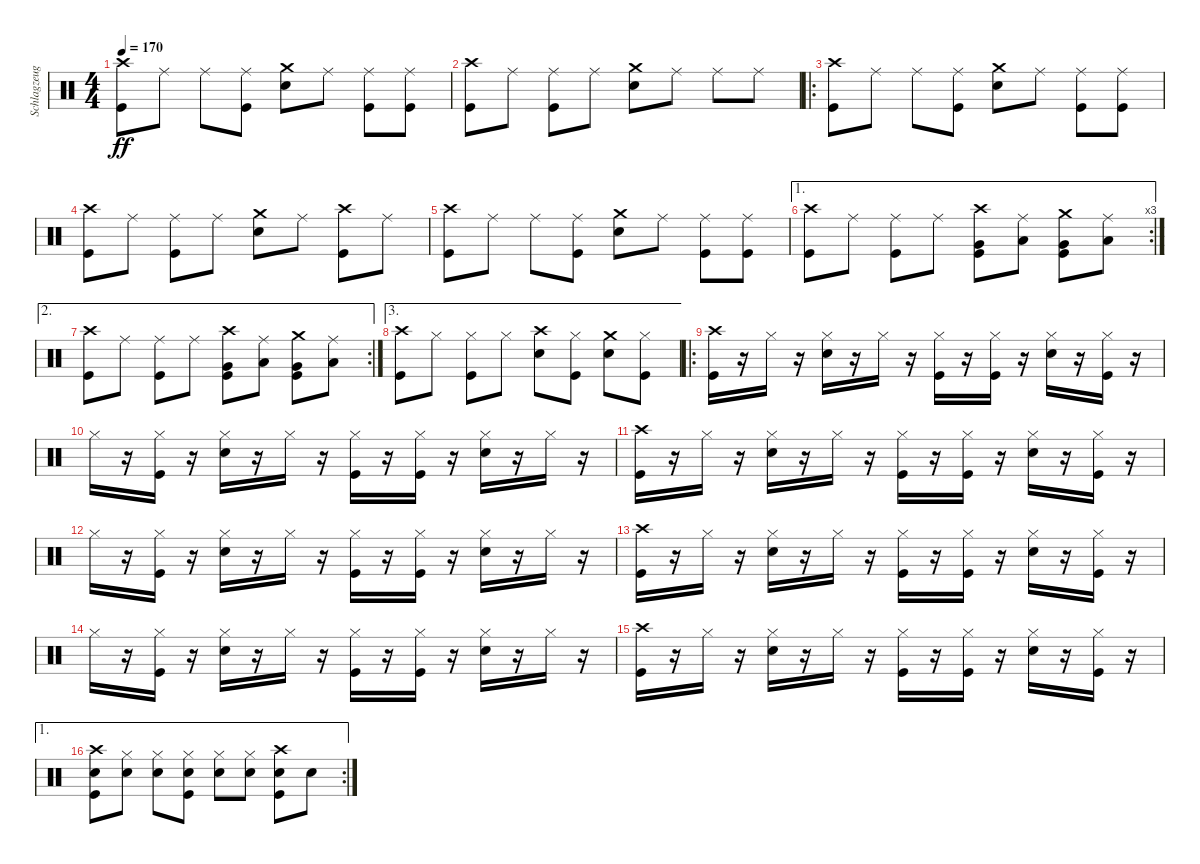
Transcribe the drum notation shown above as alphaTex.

\track ("Schlagzeug" "Schlagzeug") {instrument percussion}
\staff {score}
\articulation defaults
\ts (4 4)
\tempo 170
\clef neutral
\ks c
("Crash high (hit)" "Kick (hit)").8{dy ff} "Ride (middle)".8 "Ride (middle)".8 ("Ride (middle)" "Kick (hit)").8 ("Crash medium (hit)" "Snare (hit) 2").8 "Ride (middle)".8 ("Ride (middle)" "Kick (hit)").8 ("Ride (middle)" "Kick (hit)").8 |
("Crash high (hit)" "Kick (hit)").8 "Ride (middle)".8 ("Ride (middle)" "Kick (hit)").8 "Ride (middle)".8 ("Crash medium (hit)" "Snare (hit) 2").8 "Ride (middle)".8 "Ride (middle)".8 "Ride (middle)".8 |
\ro
("Crash high (hit)" "Kick (hit)").8 "Ride (middle)".8 "Ride (middle)".8 ("Ride (middle)" "Kick (hit)").8 ("Crash medium (hit)" "Snare (hit) 2").8 "Ride (middle)".8 ("Ride (middle)" "Kick (hit)").8 ("Ride (middle)" "Kick (hit)").8 |
("Crash high (hit)" "Kick (hit)").8 "Ride (middle)".8 ("Ride (middle)" "Kick (hit)").8 "Ride (middle)".8 ("Crash medium (hit)" "Snare (hit) 2").8 "Ride (middle)".8 ("Crash high (hit)" "Kick (hit)").8 "Ride (middle)".8 |
("Crash high (hit)" "Kick (hit)").8 "Ride (middle)".8 "Ride (middle)".8 ("Ride (middle)" "Kick (hit)").8 ("Crash medium (hit)" "Snare (hit) 2").8 "Ride (middle)".8 ("Ride (middle)" "Kick (hit)").8 ("Ride (middle)" "Kick (hit)").8 |
\ae 1
\rc 3
("Crash high (hit)" "Kick (hit)").8 "Ride (middle)".8 ("Ride (middle)" "Kick (hit)").8 "Ride (middle)".8 ("Crash high (hit)" "Very Low Tom (hit)" "Kick (hit)").8 ("Ride (middle)" "Low Floor Tom (hit)").8 ("Crash medium (hit)" "Very Low Tom (hit)" "Kick (hit)").8 ("Ride (middle)" "Low Floor Tom (hit)").8 |
\ae 2
\rc 2
("Crash high (hit)" "Kick (hit)").8 "Ride (middle)".8 ("Ride (middle)" "Kick (hit)").8 "Ride (middle)".8 ("Crash high (hit)" "Very Low Tom (hit)" "Kick (hit)").8 ("Ride (middle)" "Low Floor Tom (hit)").8 ("Crash medium (hit)" "Very Low Tom (hit)" "Kick (hit)").8 ("Ride (middle)" "Low Floor Tom (hit)").8 |
\ae 3
("Crash high (hit)" "Kick (hit)").8 "Hi-Hat (closed)".8 ("Hi-Hat (closed)" "Kick (hit)").8 "Hi-Hat (closed)".8 ("Crash high (hit)" "Snare (hit) 2").8 ("Hi-Hat (closed)" "Kick (hit)").8 ("Crash medium (hit)" "Snare (hit) 2").8 ("Hi-Hat (closed)" "Kick (hit)").8 |
\ro
("Crash high (hit)" "Kick (hit)").16 r.16 "Hi-Hat (closed)".16 r.16 ("Hi-Hat (closed)" "Snare (hit) 2").16 r.16 "Hi-Hat (closed)".16 r.16 ("Hi-Hat (closed)" "Kick (hit)").16 r.16 ("Hi-Hat (closed)" "Kick (hit)").16 r.16 ("Hi-Hat (closed)" "Snare (hit) 2").16 r.16 ("Hi-Hat (closed)" "Kick (hit)").16 r.16 |
"Hi-Hat (closed)".16 r.16 ("Hi-Hat (closed)" "Kick (hit)").16 r.16 ("Hi-Hat (closed)" "Snare (hit) 2").16 r.16 "Hi-Hat (closed)".16 r.16 ("Hi-Hat (closed)" "Kick (hit)").16 r.16 ("Hi-Hat (closed)" "Kick (hit)").16 r.16 ("Hi-Hat (closed)" "Snare (hit) 2").16 r.16 "Hi-Hat (closed)".16 r.16 |
("Crash high (hit)" "Kick (hit)").16 r.16 "Hi-Hat (closed)".16 r.16 ("Hi-Hat (closed)" "Snare (hit) 2").16 r.16 "Hi-Hat (closed)".16 r.16 ("Hi-Hat (closed)" "Kick (hit)").16 r.16 ("Hi-Hat (closed)" "Kick (hit)").16 r.16 ("Hi-Hat (closed)" "Snare (hit) 2").16 r.16 ("Hi-Hat (closed)" "Kick (hit)").16 r.16 |
"Hi-Hat (closed)".16 r.16 ("Hi-Hat (closed)" "Kick (hit)").16 r.16 ("Hi-Hat (closed)" "Snare (hit) 2").16 r.16 "Hi-Hat (closed)".16 r.16 ("Hi-Hat (closed)" "Kick (hit)").16 r.16 ("Hi-Hat (closed)" "Kick (hit)").16 r.16 ("Hi-Hat (closed)" "Snare (hit) 2").16 r.16 "Hi-Hat (closed)".16 r.16 |
("Crash high (hit)" "Kick (hit)").16 r.16 "Hi-Hat (closed)".16 r.16 ("Hi-Hat (closed)" "Snare (hit) 2").16 r.16 "Hi-Hat (closed)".16 r.16 ("Hi-Hat (closed)" "Kick (hit)").16 r.16 ("Hi-Hat (closed)" "Kick (hit)").16 r.16 ("Hi-Hat (closed)" "Snare (hit) 2").16 r.16 ("Hi-Hat (closed)" "Kick (hit)").16 r.16 |
"Hi-Hat (closed)".16 r.16 ("Hi-Hat (closed)" "Kick (hit)").16 r.16 ("Hi-Hat (closed)" "Snare (hit) 2").16 r.16 "Hi-Hat (closed)".16 r.16 ("Hi-Hat (closed)" "Kick (hit)").16 r.16 ("Hi-Hat (closed)" "Kick (hit)").16 r.16 ("Hi-Hat (closed)" "Snare (hit) 2").16 r.16 "Hi-Hat (closed)".16 r.16 |
("Crash high (hit)" "Kick (hit)").16 r.16 "Hi-Hat (closed)".16 r.16 ("Hi-Hat (closed)" "Snare (hit) 2").16 r.16 "Hi-Hat (closed)".16 r.16 ("Hi-Hat (closed)" "Kick (hit)").16 r.16 ("Hi-Hat (closed)" "Kick (hit)").16 r.16 ("Hi-Hat (closed)" "Snare (hit) 2").16 r.16 ("Hi-Hat (closed)" "Kick (hit)").16 r.16 |
\ae 1
\rc 2
("Crash high (hit)" "Snare (hit) 2" "Kick (hit)").8 ("Hi-Hat (closed)" "Snare (hit) 2").8 ("Hi-Hat (closed)" "Snare (hit) 2").8 ("Hi-Hat (closed)" "Snare (hit) 2" "Kick (hit)").8 ("Hi-Hat (closed)" "Snare (hit) 2").8 ("Hi-Hat (closed)" "Snare (hit) 2").8 ("Crash high (hit)" "Snare (hit) 2" "Kick (hit)").8 "Snare (hit) 2".8
